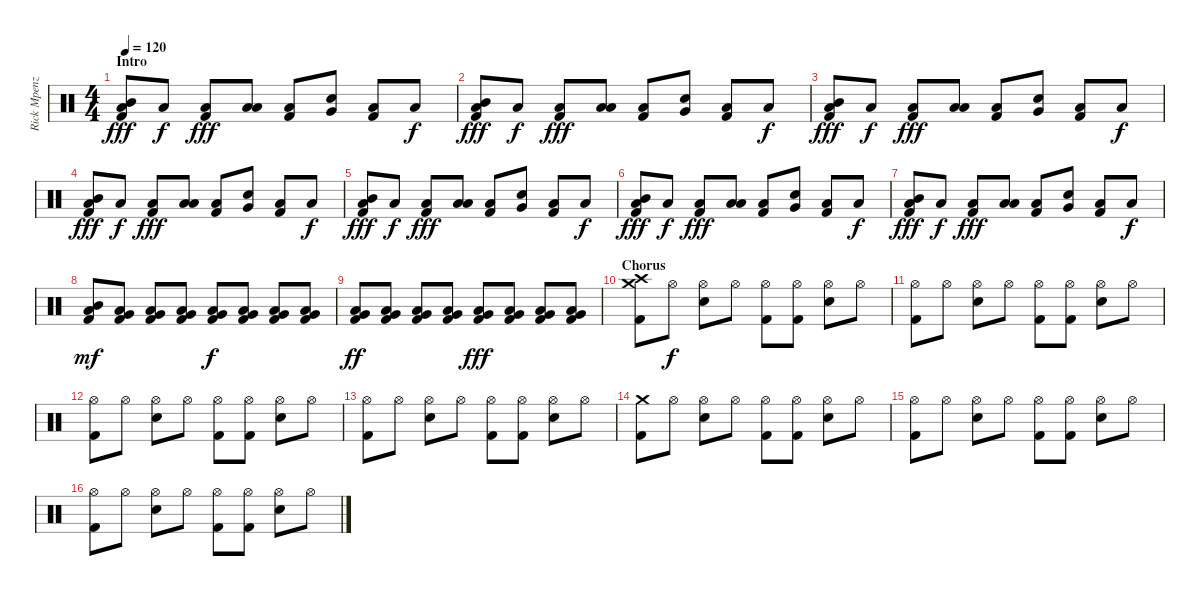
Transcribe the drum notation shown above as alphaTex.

\track ("Rick Mpenza" "Rick Mpenz") {instrument percussion}
\staff {score}
\articulation defaults
\ts (4 4)
\section ("" "Intro")
\tempo 120
\clef neutral
\ks c
("Mid Tom (hit)" "Low Floor Tom (hit)" "Kick (hit) 2").8{dy fff} "Low Floor Tom (hit)".8{dy f} ("Low Floor Tom (hit)" "Kick (hit) 2").8{dy fff} ("Low Tom (hit)" "Low Floor Tom (hit)").8 ("Low Floor Tom (hit)" "Kick (hit) 2").8 ("Very Low Tom (hit)" "Snare (hit)").8 ("Low Floor Tom (hit)" "Kick (hit) 2").8 "Low Floor Tom (hit)".8{dy f} |
("Mid Tom (hit)" "Low Floor Tom (hit)" "Kick (hit) 2").8{dy fff} "Low Floor Tom (hit)".8{dy f} ("Low Floor Tom (hit)" "Kick (hit) 2").8{dy fff} ("Low Tom (hit)" "Low Floor Tom (hit)").8 ("Low Floor Tom (hit)" "Kick (hit) 2").8 ("Very Low Tom (hit)" "Snare (hit)").8 ("Low Floor Tom (hit)" "Kick (hit) 2").8 "Low Floor Tom (hit)".8{dy f} |
("Mid Tom (hit)" "Low Floor Tom (hit)" "Kick (hit) 2").8{dy fff} "Low Floor Tom (hit)".8{dy f} ("Low Floor Tom (hit)" "Kick (hit) 2").8{dy fff} ("Low Tom (hit)" "Low Floor Tom (hit)").8 ("Low Floor Tom (hit)" "Kick (hit) 2").8 ("Very Low Tom (hit)" "Snare (hit)").8 ("Low Floor Tom (hit)" "Kick (hit) 2").8 "Low Floor Tom (hit)".8{dy f} |
("Mid Tom (hit)" "Low Floor Tom (hit)" "Kick (hit) 2").8{dy fff} "Low Floor Tom (hit)".8{dy f} ("Low Floor Tom (hit)" "Kick (hit) 2").8{dy fff} ("Low Tom (hit)" "Low Floor Tom (hit)").8 ("Low Floor Tom (hit)" "Kick (hit) 2").8 ("Very Low Tom (hit)" "Snare (hit)").8 ("Low Floor Tom (hit)" "Kick (hit) 2").8 "Low Floor Tom (hit)".8{dy f} |
("Mid Tom (hit)" "Low Floor Tom (hit)" "Kick (hit) 2").8{dy fff} "Low Floor Tom (hit)".8{dy f} ("Low Floor Tom (hit)" "Kick (hit) 2").8{dy fff} ("Low Tom (hit)" "Low Floor Tom (hit)").8 ("Low Floor Tom (hit)" "Kick (hit) 2").8 ("Very Low Tom (hit)" "Snare (hit)").8 ("Low Floor Tom (hit)" "Kick (hit) 2").8 "Low Floor Tom (hit)".8{dy f} |
("Mid Tom (hit)" "Low Floor Tom (hit)" "Kick (hit) 2").8{dy fff} "Low Floor Tom (hit)".8{dy f} ("Low Floor Tom (hit)" "Kick (hit) 2").8{dy fff} ("Low Tom (hit)" "Low Floor Tom (hit)").8 ("Low Floor Tom (hit)" "Kick (hit) 2").8 ("Very Low Tom (hit)" "Snare (hit)").8 ("Low Floor Tom (hit)" "Kick (hit) 2").8 "Low Floor Tom (hit)".8{dy f} |
("Mid Tom (hit)" "Low Floor Tom (hit)" "Kick (hit) 2").8{dy fff} "Low Floor Tom (hit)".8{dy f} ("Low Floor Tom (hit)" "Kick (hit) 2").8{dy fff} ("Low Tom (hit)" "Low Floor Tom (hit)").8 ("Low Floor Tom (hit)" "Kick (hit) 2").8 ("Very Low Tom (hit)" "Snare (hit)").8 ("Low Floor Tom (hit)" "Kick (hit) 2").8 "Low Floor Tom (hit)".8{dy f} |
("Mid Tom (hit)" "Low Floor Tom (hit)" "Kick (hit) 2").8{dy mf} ("Very Low Tom (hit)" "Low Floor Tom (hit)" "Kick (hit) 2").8 ("Very Low Tom (hit)" "Low Floor Tom (hit)" "Kick (hit) 2").8 ("Very Low Tom (hit)" "Low Floor Tom (hit)" "Kick (hit) 2").8 ("Very Low Tom (hit)" "Low Floor Tom (hit)" "Kick (hit) 2").8{dy f} ("Very Low Tom (hit)" "Low Floor Tom (hit)" "Kick (hit) 2").8 ("Very Low Tom (hit)" "Low Floor Tom (hit)" "Kick (hit) 2").8 ("Very Low Tom (hit)" "Low Floor Tom (hit)" "Kick (hit) 2").8 |
("Very Low Tom (hit)" "Low Floor Tom (hit)" "Kick (hit) 2").8{dy ff} ("Very Low Tom (hit)" "Low Floor Tom (hit)" "Kick (hit) 2").8 ("Very Low Tom (hit)" "Low Floor Tom (hit)" "Kick (hit) 2").8 ("Very Low Tom (hit)" "Low Floor Tom (hit)" "Kick (hit) 2").8 ("Very Low Tom (hit)" "Low Floor Tom (hit)" "Kick (hit) 2").8{dy fff} ("Very Low Tom (hit)" "Low Floor Tom (hit)" "Kick (hit) 2").8 ("Very Low Tom (hit)" "Low Floor Tom (hit)" "Kick (hit) 2").8 ("Very Low Tom (hit)" "Low Floor Tom (hit)" "Kick (hit) 2").8 |
\section ("" "Chorus")
("Crash medium (hit)" "Crash high (hit)" "Kick (hit) 2").8 "Hi-Hat (open)".8{dy f} ("Hi-Hat (open)" "Snare (hit) 2").8 "Hi-Hat (open)".8 ("Hi-Hat (open)" "Kick (hit) 2").8 ("Hi-Hat (open)" "Kick (hit) 2").8 ("Hi-Hat (open)" "Snare (hit) 2").8 "Hi-Hat (open)".8 |
("Hi-Hat (open)" "Kick (hit) 2").8 "Hi-Hat (open)".8 ("Hi-Hat (open)" "Snare (hit) 2").8 "Hi-Hat (open)".8 ("Hi-Hat (open)" "Kick (hit) 2").8 ("Hi-Hat (open)" "Kick (hit) 2").8 ("Hi-Hat (open)" "Snare (hit) 2").8 "Hi-Hat (open)".8 |
("Hi-Hat (open)" "Kick (hit) 2").8 "Hi-Hat (open)".8 ("Hi-Hat (open)" "Snare (hit) 2").8 "Hi-Hat (open)".8 ("Hi-Hat (open)" "Kick (hit) 2").8 ("Hi-Hat (open)" "Kick (hit) 2").8 ("Hi-Hat (open)" "Snare (hit) 2").8 "Hi-Hat (open)".8 |
("Hi-Hat (open)" "Kick (hit) 2").8 "Hi-Hat (open)".8 ("Hi-Hat (open)" "Snare (hit) 2").8 "Hi-Hat (open)".8 ("Hi-Hat (open)" "Kick (hit) 2").8 ("Hi-Hat (open)" "Kick (hit) 2").8 ("Hi-Hat (open)" "Snare (hit) 2").8 "Hi-Hat (open)".8 |
("Crash medium (hit)" "Kick (hit) 2").8 "Hi-Hat (open)".8 ("Hi-Hat (open)" "Snare (hit) 2").8 "Hi-Hat (open)".8 ("Hi-Hat (open)" "Kick (hit) 2").8 ("Hi-Hat (open)" "Kick (hit) 2").8 ("Hi-Hat (open)" "Snare (hit) 2").8 "Hi-Hat (open)".8 |
("Hi-Hat (open)" "Kick (hit) 2").8 "Hi-Hat (open)".8 ("Hi-Hat (open)" "Snare (hit) 2").8 "Hi-Hat (open)".8 ("Hi-Hat (open)" "Kick (hit) 2").8 ("Hi-Hat (open)" "Kick (hit) 2").8 ("Hi-Hat (open)" "Snare (hit) 2").8 "Hi-Hat (open)".8 |
("Hi-Hat (open)" "Kick (hit) 2").8 "Hi-Hat (open)".8 ("Hi-Hat (open)" "Snare (hit) 2").8 "Hi-Hat (open)".8 ("Hi-Hat (open)" "Kick (hit) 2").8 ("Hi-Hat (open)" "Kick (hit) 2").8 ("Hi-Hat (open)" "Snare (hit) 2").8 "Hi-Hat (open)".8
